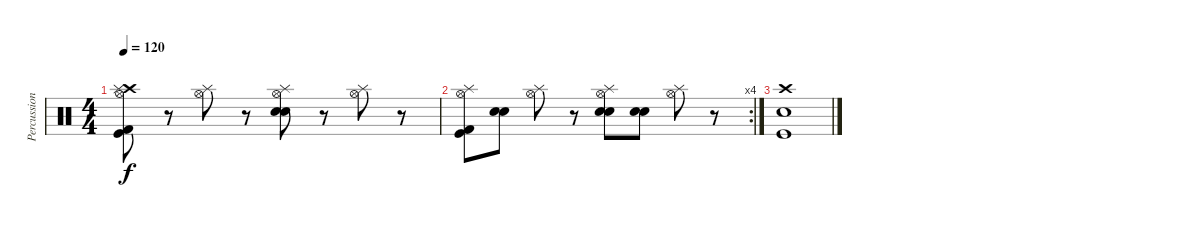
\track ("Percussion" "Percussion") {instrument percussion}
\staff {score}
\articulation defaults
\ts (4 4)
\tempo 120
\clef neutral
\ks c
("Kick (hit)" "Hi-Hat (open)" "Crash high (hit)" "Kick (hit) 2" "Splash (hit)").8{dy f} r.8 ("Hi-Hat (open)" "Splash (hit)").8 r.8 ("Electric Snare (hit)" "Hi-Hat (open)" "Snare (hit) 2" "Splash (hit)").8 r.8 ("Hi-Hat (open)" "Splash (hit)").8 r.8 |
\rc 4
("Kick (hit)" "Hi-Hat (open)" "Kick (hit) 2" "Splash (hit)").8 ("Electric Snare (hit)" "Snare (hit) 2").8 ("Hi-Hat (open)" "Splash (hit)").8 r.8 ("Electric Snare (hit)" "Hi-Hat (open)" "Snare (hit) 2" "Splash (hit)").8 ("Electric Snare (hit)" "Snare (hit) 2").8 ("Hi-Hat (open)" "Splash (hit)").8 r.8 |
("Kick (hit)" "Electric Snare (hit)" "Crash high (hit)").1
